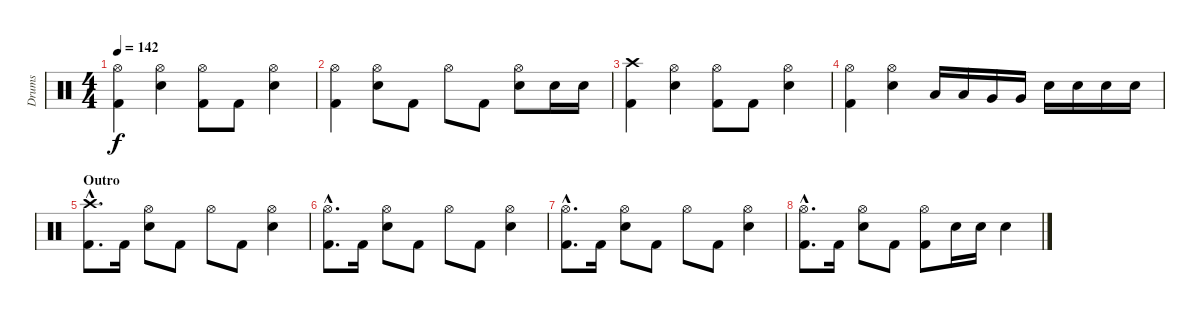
\track ("Drums" "Drums") {instrument percussion}
\staff {score}
\articulation defaults
\ts (4 4)
\tempo 142
\clef neutral
\ks c
("Hi-Hat (open)" "Kick (hit) 2").4{dy f} ("Hi-Hat (open)" "Electric Snare (hit)").4 ("Hi-Hat (open)" "Kick (hit) 2").8 "Kick (hit) 2".8 ("Hi-Hat (open)" "Electric Snare (hit)").4 |
("Hi-Hat (open)" "Kick (hit) 2").4 ("Hi-Hat (open)" "Electric Snare (hit)").8 "Kick (hit) 2".8 "Hi-Hat (open)".8 "Kick (hit) 2".8 ("Hi-Hat (open)" "Electric Snare (hit)").8 "Electric Snare (hit)".16 "Electric Snare (hit)".16 |
("Crash high (hit)" "Kick (hit) 2").4 ("Hi-Hat (open)" "Electric Snare (hit)").4 ("Hi-Hat (open)" "Kick (hit) 2").8 "Kick (hit) 2".8 ("Hi-Hat (open)" "Electric Snare (hit)").4 |
("Hi-Hat (open)" "Kick (hit) 2").4 ("Hi-Hat (open)" "Electric Snare (hit)").4 "Low Tom (hit)".16 "Low Tom (hit)".16 "Very Low Tom (hit)".16 "Very Low Tom (hit)".16 "Electric Snare (hit)".16 "Electric Snare (hit)".16 "Electric Snare (hit)".16 "Electric Snare (hit)".16 |
\section ("" "Outro")
("Crash high (hit)"{hac} "Kick (hit) 2"{hac}).8{d} "Kick (hit) 2".16 ("Hi-Hat (open)" "Electric Snare (hit)").8 "Kick (hit) 2".8 "Hi-Hat (open)".8 "Kick (hit) 2".8 ("Hi-Hat (open)" "Electric Snare (hit)").4 |
("Hi-Hat (open)"{hac} "Kick (hit) 2"{hac}).8{d} "Kick (hit) 2".16 ("Hi-Hat (open)" "Electric Snare (hit)").8 "Kick (hit) 2".8 "Hi-Hat (open)".8 "Kick (hit) 2".8 ("Hi-Hat (open)" "Electric Snare (hit)").4 |
("Hi-Hat (open)"{hac} "Kick (hit) 2"{hac}).8{d} "Kick (hit) 2".16 ("Hi-Hat (open)" "Electric Snare (hit)").8 "Kick (hit) 2".8 "Hi-Hat (open)".8 "Kick (hit) 2".8 ("Hi-Hat (open)" "Electric Snare (hit)").4 |
("Hi-Hat (open)"{hac} "Kick (hit) 2"{hac}).8{d} "Kick (hit) 2".16 ("Hi-Hat (open)" "Electric Snare (hit)").8 "Kick (hit) 2".8 ("Hi-Hat (open)" "Kick (hit) 2").8 "Electric Snare (hit)".16 "Electric Snare (hit)".16 "Electric Snare (hit)".4
